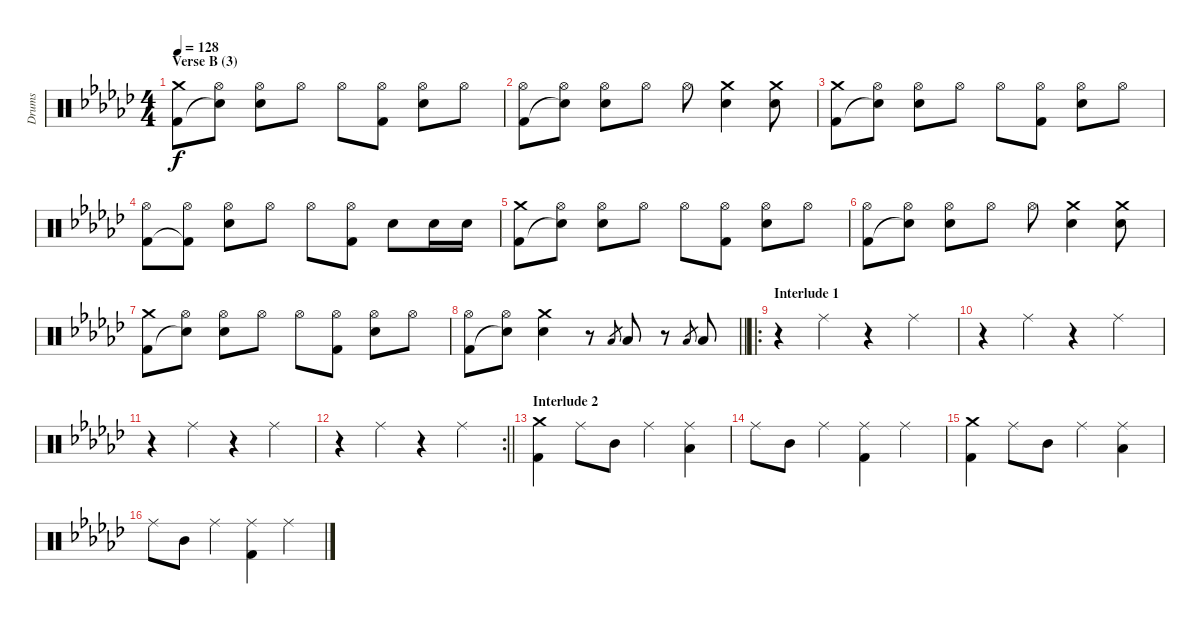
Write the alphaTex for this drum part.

\track ("Drums" "Drums") {instrument percussion}
\staff {score}
\articulation defaults
\ts (4 4)
\section ("" "Verse B (3)")
\tempo 128
\clef neutral
\ks gb
("Crash medium (hit)" "Kick (hit) 2").8{dy f} ("Hi-Hat (open)" "Snare (hit)"{t}).8 ("Hi-Hat (open)" "Electric Snare (hit)").8 "Hi-Hat (open)".8 "Hi-Hat (open)".8 ("Hi-Hat (open)" "Kick (hit) 2").8 ("Hi-Hat (open)" "Electric Snare (hit)").8 "Hi-Hat (open)".8 |
("Hi-Hat (open)" "Kick (hit) 2").8 ("Hi-Hat (open)" "Snare (hit)"{t}).8 ("Hi-Hat (open)" "Electric Snare (hit)").8 "Hi-Hat (open)".8 "Hi-Hat (open)".8 ("Crash medium (hit)" "Electric Snare (hit)").4 ("Crash medium (hit)" "Electric Snare (hit)").8 |
("Crash medium (hit)" "Kick (hit) 2").8 ("Hi-Hat (open)" "Snare (hit)"{t}).8 ("Hi-Hat (open)" "Electric Snare (hit)").8 "Hi-Hat (open)".8 "Hi-Hat (open)".8 ("Hi-Hat (open)" "Kick (hit) 2").8 ("Hi-Hat (open)" "Electric Snare (hit)").8 "Hi-Hat (open)".8 |
("Hi-Hat (open)" "Kick (hit) 2").8 ("Hi-Hat (open)" "Kick (hit) 2"{t}).8 ("Hi-Hat (open)" "Electric Snare (hit)").8 "Hi-Hat (open)".8 "Hi-Hat (open)".8 ("Hi-Hat (open)" "Kick (hit) 2").8 "Electric Snare (hit)".8 "Electric Snare (hit)".16 "Electric Snare (hit)".16 |
("Crash medium (hit)" "Kick (hit) 2").8 ("Hi-Hat (open)" "Snare (hit)"{t}).8 ("Hi-Hat (open)" "Electric Snare (hit)").8 "Hi-Hat (open)".8 "Hi-Hat (open)".8 ("Hi-Hat (open)" "Kick (hit) 2").8 ("Hi-Hat (open)" "Electric Snare (hit)").8 "Hi-Hat (open)".8 |
("Hi-Hat (open)" "Kick (hit) 2").8 ("Hi-Hat (open)" "Snare (hit)"{t}).8 ("Hi-Hat (open)" "Electric Snare (hit)").8 "Hi-Hat (open)".8 "Hi-Hat (open)".8 ("Crash medium (hit)" "Electric Snare (hit)").4 ("Crash medium (hit)" "Electric Snare (hit)").8 |
("Crash medium (hit)" "Kick (hit) 2").8 ("Hi-Hat (open)" "Snare (hit)"{t}).8 ("Hi-Hat (open)" "Electric Snare (hit)").8 "Hi-Hat (open)".8 "Hi-Hat (open)".8 ("Hi-Hat (open)" "Kick (hit) 2").8 ("Hi-Hat (open)" "Electric Snare (hit)").8 "Hi-Hat (open)".8 |
\barLineRight lightlight
("Hi-Hat (open)" "Kick (hit) 2").8 ("Hi-Hat (open)" "Snare (hit)"{t}).8 ("Crash medium (hit)" "Electric Snare (hit)").4 r.8 "Low Floor Tom (hit)".8{gr} "Low Floor Tom (hit)".8 r.8 "Low Floor Tom (hit)".8{gr} "Low Floor Tom (hit)".8 |
\ro
\section ("" "Interlude 1")
r.4 "Ride (middle)".4 r.4 "Ride (middle)".4 |
r.4 "Ride (middle)".4 r.4 "Ride (middle)".4 |
r.4 "Ride (middle)".4 r.4 "Ride (middle)".4 |
\rc 2
\barLineRight lightlight
r.4 "Ride (middle)".4 r.4 "Ride (middle)".4 |
\section ("" "Interlude 2")
("Crash medium (hit)" "Kick (hit) 2").4 "Ride (middle)".8 "Mid Tom (hit)".8 "Ride (middle)".4 ("Ride (middle)" "Low Floor Tom (hit)").4 |
"Ride (middle)".8 "Mid Tom (hit)".8 "Ride (middle)".4 ("Ride (middle)" "Kick (hit) 2").4 "Ride (middle)".4 |
("Crash medium (hit)" "Kick (hit) 2").4 "Ride (middle)".8 "Mid Tom (hit)".8 "Ride (middle)".4 ("Ride (middle)" "Low Floor Tom (hit)").4 |
"Ride (middle)".8 "Mid Tom (hit)".8 "Ride (middle)".4 ("Ride (middle)" "Kick (hit) 2").4 "Ride (middle)".4
